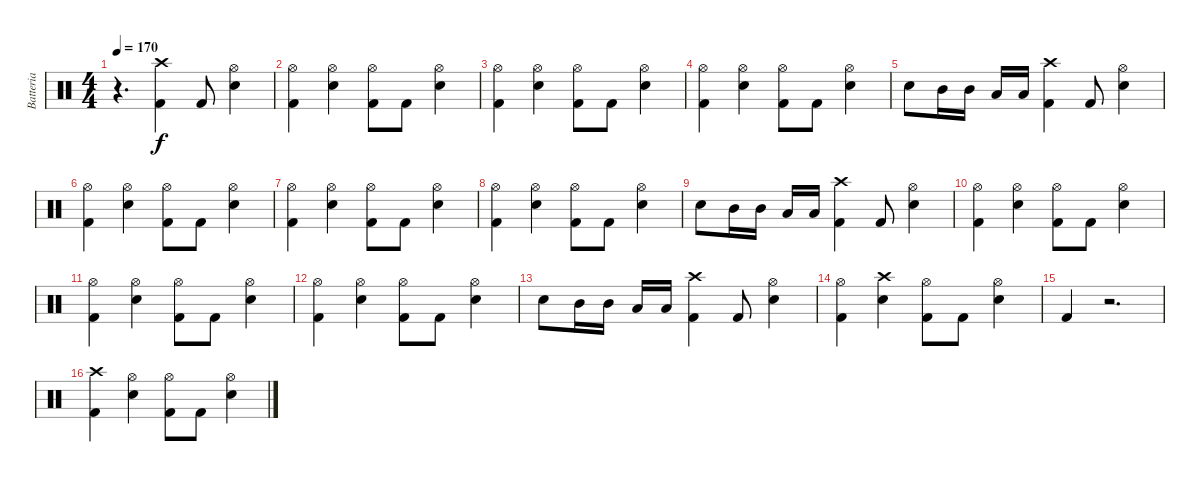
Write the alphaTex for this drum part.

\track ("Batteria" "Batteria") {instrument percussion}
\staff {score}
\articulation defaults
\ts (4 4)
\tempo 170
\clef neutral
\ks c
r.4{d dy f} ("Crash high (hit)" "Kick (hit) 2").4 "Kick (hit) 2".8 ("Hi-Hat (open)" "Snare (hit) 2").4 |
("Hi-Hat (open)" "Kick (hit) 2").4 ("Hi-Hat (open)" "Snare (hit) 2").4 ("Hi-Hat (open)" "Kick (hit) 2").8 "Kick (hit) 2".8 ("Hi-Hat (open)" "Snare (hit) 2").4 |
("Hi-Hat (open)" "Kick (hit) 2").4 ("Hi-Hat (open)" "Snare (hit) 2").4 ("Hi-Hat (open)" "Kick (hit) 2").8 "Kick (hit) 2".8 ("Hi-Hat (open)" "Snare (hit) 2").4 |
("Hi-Hat (open)" "Kick (hit) 2").4 ("Hi-Hat (open)" "Snare (hit) 2").4 ("Hi-Hat (open)" "Kick (hit) 2").8 "Kick (hit) 2".8 ("Hi-Hat (open)" "Snare (hit) 2").4 |
"Snare (hit) 2".8 "Mid Tom (hit)".16 "Mid Tom (hit)".16 "Low Tom (hit)".16 "Low Tom (hit)".16 ("Crash high (hit)" "Kick (hit) 2").4 "Kick (hit) 2".8 ("Hi-Hat (open)" "Snare (hit) 2").4 |
("Hi-Hat (open)" "Kick (hit) 2").4 ("Hi-Hat (open)" "Snare (hit) 2").4 ("Hi-Hat (open)" "Kick (hit) 2").8 "Kick (hit) 2".8 ("Hi-Hat (open)" "Snare (hit) 2").4 |
("Hi-Hat (open)" "Kick (hit) 2").4 ("Hi-Hat (open)" "Snare (hit) 2").4 ("Hi-Hat (open)" "Kick (hit) 2").8 "Kick (hit) 2".8 ("Hi-Hat (open)" "Snare (hit) 2").4 |
("Hi-Hat (open)" "Kick (hit) 2").4 ("Hi-Hat (open)" "Snare (hit) 2").4 ("Hi-Hat (open)" "Kick (hit) 2").8 "Kick (hit) 2".8 ("Hi-Hat (open)" "Snare (hit) 2").4 |
"Snare (hit) 2".8 "Mid Tom (hit)".16 "Mid Tom (hit)".16 "Low Tom (hit)".16 "Low Tom (hit)".16 ("Crash high (hit)" "Kick (hit) 2").4 "Kick (hit) 2".8 ("Hi-Hat (open)" "Snare (hit) 2").4 |
("Hi-Hat (open)" "Kick (hit) 2").4 ("Hi-Hat (open)" "Snare (hit) 2").4 ("Hi-Hat (open)" "Kick (hit) 2").8 "Kick (hit) 2".8 ("Hi-Hat (open)" "Snare (hit) 2").4 |
("Hi-Hat (open)" "Kick (hit) 2").4 ("Hi-Hat (open)" "Snare (hit) 2").4 ("Hi-Hat (open)" "Kick (hit) 2").8 "Kick (hit) 2".8 ("Hi-Hat (open)" "Snare (hit) 2").4 |
("Hi-Hat (open)" "Kick (hit) 2").4 ("Hi-Hat (open)" "Snare (hit) 2").4 ("Hi-Hat (open)" "Kick (hit) 2").8 "Kick (hit) 2".8 ("Hi-Hat (open)" "Snare (hit) 2").4 |
"Snare (hit) 2".8 "Mid Tom (hit)".16 "Mid Tom (hit)".16 "Low Tom (hit)".16 "Low Tom (hit)".16 ("Crash high (hit)" "Kick (hit) 2").4 "Kick (hit) 2".8 ("Hi-Hat (open)" "Snare (hit) 2").4 |
("Hi-Hat (open)" "Kick (hit) 2").4 ("Crash high (hit)" "Snare (hit) 2").4 ("Hi-Hat (open)" "Kick (hit) 2").8 "Kick (hit) 2".8 ("Hi-Hat (open)" "Snare (hit) 2").4 |
"Kick (hit) 2".4 r.2{d} |
("Crash high (hit)" "Kick (hit) 2").4 ("Hi-Hat (open)" "Snare (hit) 2").4 ("Hi-Hat (open)" "Kick (hit) 2").8 "Kick (hit) 2".8 ("Hi-Hat (open)" "Snare (hit) 2").4
